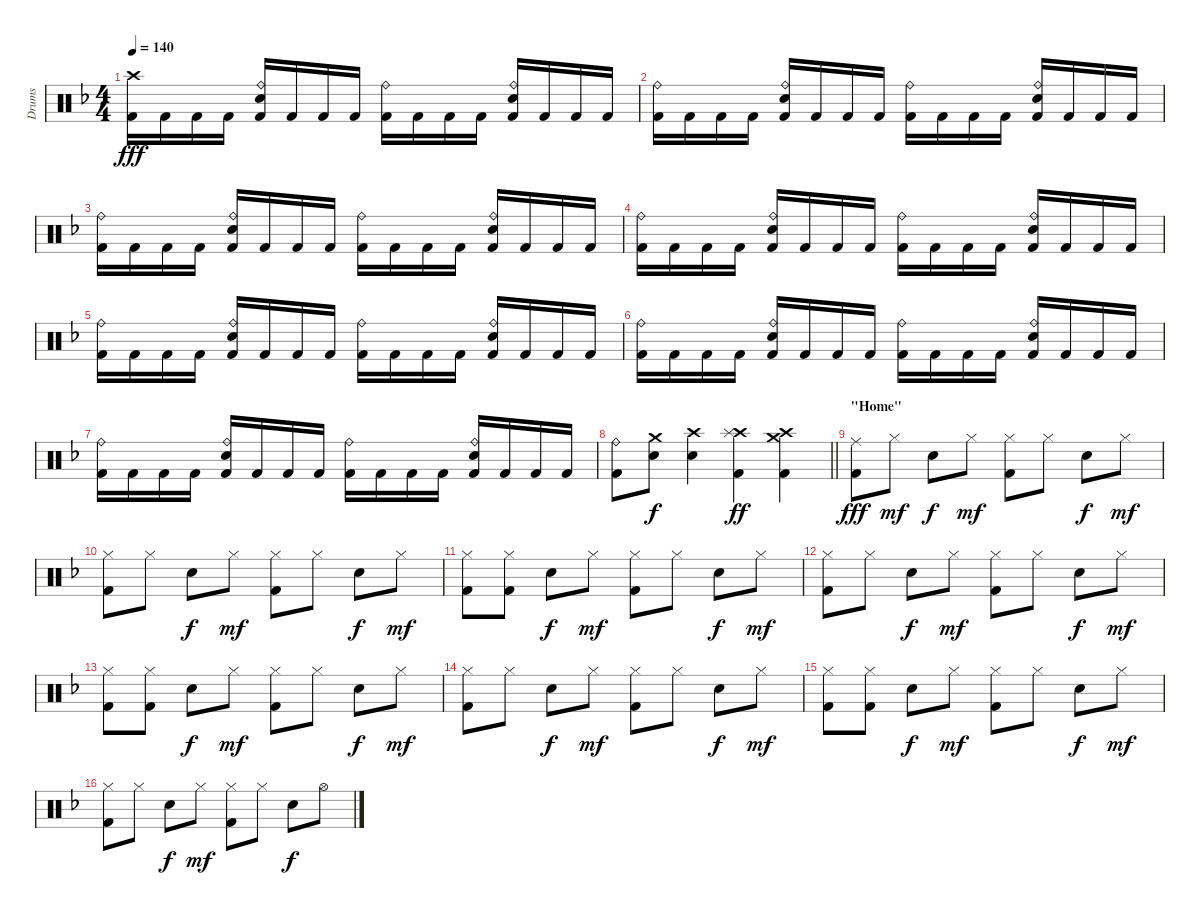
\track ("Drums" "Drums") {instrument percussion}
\staff {score}
\articulation defaults
\ts (4 4)
\tempo 140
\clef neutral
\ks dminor
("Kick (hit) 2" "Crash high (hit)").16{dy fff} "Kick (hit) 2".16 "Kick (hit) 2".16 "Kick (hit) 2".16 ("Kick (hit) 2" "Ride (bell)" "Electric Snare (hit)").16 "Kick (hit) 2".16 "Kick (hit) 2".16 "Kick (hit) 2".16 ("Kick (hit) 2" "Ride (bell)").16 "Kick (hit) 2".16 "Kick (hit) 2".16 "Kick (hit) 2".16 ("Kick (hit) 2" "Ride (bell)" "Electric Snare (hit)").16 "Kick (hit) 2".16 "Kick (hit) 2".16 "Kick (hit) 2".16 |
("Kick (hit) 2" "Ride (bell)").16 "Kick (hit) 2".16 "Kick (hit) 2".16 "Kick (hit) 2".16 ("Kick (hit) 2" "Ride (bell)" "Electric Snare (hit)").16 "Kick (hit) 2".16 "Kick (hit) 2".16 "Kick (hit) 2".16 ("Kick (hit) 2" "Ride (bell)").16 "Kick (hit) 2".16 "Kick (hit) 2".16 "Kick (hit) 2".16 ("Kick (hit) 2" "Ride (bell)" "Electric Snare (hit)").16 "Kick (hit) 2".16 "Kick (hit) 2".16 "Kick (hit) 2".16 |
("Kick (hit) 2" "Ride (bell)").16 "Kick (hit) 2".16 "Kick (hit) 2".16 "Kick (hit) 2".16 ("Kick (hit) 2" "Ride (bell)" "Electric Snare (hit)").16 "Kick (hit) 2".16 "Kick (hit) 2".16 "Kick (hit) 2".16 ("Kick (hit) 2" "Ride (bell)").16 "Kick (hit) 2".16 "Kick (hit) 2".16 "Kick (hit) 2".16 ("Kick (hit) 2" "Ride (bell)" "Electric Snare (hit)").16 "Kick (hit) 2".16 "Kick (hit) 2".16 "Kick (hit) 2".16 |
("Kick (hit) 2" "Ride (bell)").16 "Kick (hit) 2".16 "Kick (hit) 2".16 "Kick (hit) 2".16 ("Kick (hit) 2" "Ride (bell)" "Electric Snare (hit)").16 "Kick (hit) 2".16 "Kick (hit) 2".16 "Kick (hit) 2".16 ("Kick (hit) 2" "Ride (bell)").16 "Kick (hit) 2".16 "Kick (hit) 2".16 "Kick (hit) 2".16 ("Kick (hit) 2" "Ride (bell)" "Electric Snare (hit)").16 "Kick (hit) 2".16 "Kick (hit) 2".16 "Kick (hit) 2".16 |
("Kick (hit) 2" "Ride (bell)").16 "Kick (hit) 2".16 "Kick (hit) 2".16 "Kick (hit) 2".16 ("Kick (hit) 2" "Ride (bell)" "Electric Snare (hit)").16 "Kick (hit) 2".16 "Kick (hit) 2".16 "Kick (hit) 2".16 ("Kick (hit) 2" "Ride (bell)").16 "Kick (hit) 2".16 "Kick (hit) 2".16 "Kick (hit) 2".16 ("Kick (hit) 2" "Ride (bell)" "Electric Snare (hit)").16 "Kick (hit) 2".16 "Kick (hit) 2".16 "Kick (hit) 2".16 |
("Kick (hit) 2" "Ride (bell)").16 "Kick (hit) 2".16 "Kick (hit) 2".16 "Kick (hit) 2".16 ("Kick (hit) 2" "Ride (bell)" "Electric Snare (hit)").16 "Kick (hit) 2".16 "Kick (hit) 2".16 "Kick (hit) 2".16 ("Kick (hit) 2" "Ride (bell)").16 "Kick (hit) 2".16 "Kick (hit) 2".16 "Kick (hit) 2".16 ("Kick (hit) 2" "Ride (bell)" "Electric Snare (hit)").16 "Kick (hit) 2".16 "Kick (hit) 2".16 "Kick (hit) 2".16 |
("Kick (hit) 2" "Ride (bell)").16 "Kick (hit) 2".16 "Kick (hit) 2".16 "Kick (hit) 2".16 ("Kick (hit) 2" "Ride (bell)" "Electric Snare (hit)").16 "Kick (hit) 2".16 "Kick (hit) 2".16 "Kick (hit) 2".16 ("Kick (hit) 2" "Ride (bell)").16 "Kick (hit) 2".16 "Kick (hit) 2".16 "Kick (hit) 2".16 ("Kick (hit) 2" "Ride (bell)" "Electric Snare (hit)").16 "Kick (hit) 2".16 "Kick (hit) 2".16 "Kick (hit) 2".16 |
\barLineRight lightlight
("Ride (bell)" "Kick (hit) 2").8 ("Crash medium (hit)" "Electric Snare (hit)").8{dy f} ("Crash high (hit)" "Electric Snare (hit)").4 ("Crash high (hit)" "Splash (hit)" "Kick (hit) 2").4{dy ff} ("Crash high (hit)" "Crash medium (hit)" "Kick (hit) 2").4 |
\section ("" "\"Home\"")
("Kick (hit) 2" "Ride (middle)").8{dy fff} "Hi-Hat (closed)".8{dy mf} "Electric Snare (hit)".8{dy f} "Hi-Hat (closed)".8{dy mf} ("Kick (hit) 2" "Hi-Hat (closed)").8 "Hi-Hat (closed)".8 "Electric Snare (hit)".8{dy f} "Hi-Hat (closed)".8{dy mf} |
("Kick (hit) 2" "Hi-Hat (closed)").8 "Hi-Hat (closed)".8 "Electric Snare (hit)".8{dy f} "Hi-Hat (closed)".8{dy mf} ("Kick (hit) 2" "Hi-Hat (closed)").8 "Hi-Hat (closed)".8 "Electric Snare (hit)".8{dy f} "Hi-Hat (closed)".8{dy mf} |
("Kick (hit) 2" "Hi-Hat (closed)").8 ("Kick (hit) 2" "Hi-Hat (closed)").8 "Electric Snare (hit)".8{dy f} "Hi-Hat (closed)".8{dy mf} ("Kick (hit) 2" "Hi-Hat (closed)").8 "Hi-Hat (closed)".8 "Electric Snare (hit)".8{dy f} "Hi-Hat (closed)".8{dy mf} |
("Kick (hit) 2" "Hi-Hat (closed)").8 "Hi-Hat (closed)".8 "Electric Snare (hit)".8{dy f} "Hi-Hat (closed)".8{dy mf} ("Kick (hit) 2" "Hi-Hat (closed)").8 "Hi-Hat (closed)".8 "Electric Snare (hit)".8{dy f} "Hi-Hat (closed)".8{dy mf} |
("Kick (hit) 2" "Hi-Hat (closed)").8 ("Kick (hit) 2" "Hi-Hat (closed)").8 "Electric Snare (hit)".8{dy f} "Hi-Hat (closed)".8{dy mf} ("Kick (hit) 2" "Hi-Hat (closed)").8 "Hi-Hat (closed)".8 "Electric Snare (hit)".8{dy f} "Hi-Hat (closed)".8{dy mf} |
("Kick (hit) 2" "Hi-Hat (closed)").8 "Hi-Hat (closed)".8 "Electric Snare (hit)".8{dy f} "Hi-Hat (closed)".8{dy mf} ("Kick (hit) 2" "Hi-Hat (closed)").8 "Hi-Hat (closed)".8 "Electric Snare (hit)".8{dy f} "Hi-Hat (closed)".8{dy mf} |
("Kick (hit) 2" "Hi-Hat (closed)").8 ("Kick (hit) 2" "Hi-Hat (closed)").8 "Electric Snare (hit)".8{dy f} "Hi-Hat (closed)".8{dy mf} ("Kick (hit) 2" "Hi-Hat (closed)").8 "Hi-Hat (closed)".8 "Electric Snare (hit)".8{dy f} "Hi-Hat (closed)".8{dy mf} |
("Kick (hit) 2" "Hi-Hat (closed)").8 "Hi-Hat (closed)".8 "Electric Snare (hit)".8{dy f} "Hi-Hat (closed)".8{dy mf} ("Kick (hit) 2" "Hi-Hat (closed)").8 "Hi-Hat (closed)".8 "Electric Snare (hit)".8{dy f} "Hi-Hat (open)".8
